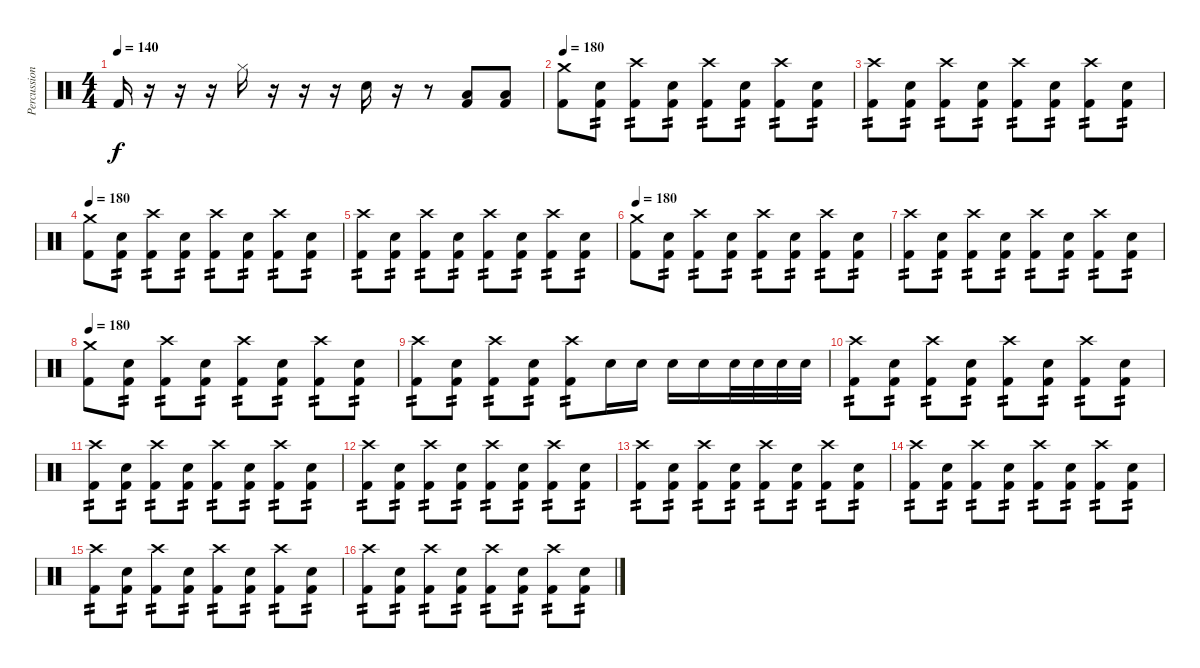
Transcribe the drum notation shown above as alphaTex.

\track ("Percussion" "Percussion") {instrument percussion}
\staff {score}
\articulation defaults
\ts (4 4)
\tempo 140
\clef neutral
\ks c "Kick (hit) 2".16{dy f}
r.16 r.16 r.16 "Hi-Hat (closed)".16 r.16 r.16 r.16 "Electric Snare (hit)".16 r.16 r.8 ("Kick (hit) 2" "Low Floor Tom (hit)").8 ("Kick (hit) 2" "Low Floor Tom (hit)").8 |
\tempo 180
("Crash medium (hit)" "Kick (hit) 2").8 ("Electric Snare (hit)" "Kick (hit) 2").8{tp 2} ("Crash high (hit)" "Kick (hit) 2").8{tp 2} ("Electric Snare (hit)" "Kick (hit) 2").8{tp 2} ("Crash high (hit)" "Kick (hit) 2").8{tp 2} ("Electric Snare (hit)" "Kick (hit) 2").8{tp 2} ("Crash high (hit)" "Kick (hit) 2").8{tp 2} ("Electric Snare (hit)" "Kick (hit) 2").8{tp 2} |
("Crash high (hit)" "Kick (hit) 2").8{tp 2} ("Electric Snare (hit)" "Kick (hit) 2").8{tp 2} ("Crash high (hit)" "Kick (hit) 2").8{tp 2} ("Electric Snare (hit)" "Kick (hit) 2").8{tp 2} ("Crash high (hit)" "Kick (hit) 2").8{tp 2} ("Electric Snare (hit)" "Kick (hit) 2").8{tp 2} ("Crash high (hit)" "Kick (hit) 2").8{tp 2} ("Electric Snare (hit)" "Kick (hit) 2").8{tp 2} |
\tempo 180
("Crash medium (hit)" "Kick (hit) 2").8 ("Electric Snare (hit)" "Kick (hit) 2").8{tp 2} ("Crash high (hit)" "Kick (hit) 2").8{tp 2} ("Electric Snare (hit)" "Kick (hit) 2").8{tp 2} ("Crash high (hit)" "Kick (hit) 2").8{tp 2} ("Electric Snare (hit)" "Kick (hit) 2").8{tp 2} ("Crash high (hit)" "Kick (hit) 2").8{tp 2} ("Electric Snare (hit)" "Kick (hit) 2").8{tp 2} |
("Crash high (hit)" "Kick (hit) 2").8{tp 2} ("Electric Snare (hit)" "Kick (hit) 2").8{tp 2} ("Crash high (hit)" "Kick (hit) 2").8{tp 2} ("Electric Snare (hit)" "Kick (hit) 2").8{tp 2} ("Crash high (hit)" "Kick (hit) 2").8{tp 2} ("Electric Snare (hit)" "Kick (hit) 2").8{tp 2} ("Crash high (hit)" "Kick (hit) 2").8{tp 2} ("Electric Snare (hit)" "Kick (hit) 2").8{tp 2} |
\tempo 180
("Crash medium (hit)" "Kick (hit) 2").8 ("Electric Snare (hit)" "Kick (hit) 2").8{tp 2} ("Crash high (hit)" "Kick (hit) 2").8{tp 2} ("Electric Snare (hit)" "Kick (hit) 2").8{tp 2} ("Crash high (hit)" "Kick (hit) 2").8{tp 2} ("Electric Snare (hit)" "Kick (hit) 2").8{tp 2} ("Crash high (hit)" "Kick (hit) 2").8{tp 2} ("Electric Snare (hit)" "Kick (hit) 2").8{tp 2} |
("Crash high (hit)" "Kick (hit) 2").8{tp 2} ("Electric Snare (hit)" "Kick (hit) 2").8{tp 2} ("Crash high (hit)" "Kick (hit) 2").8{tp 2} ("Electric Snare (hit)" "Kick (hit) 2").8{tp 2} ("Crash high (hit)" "Kick (hit) 2").8{tp 2} ("Electric Snare (hit)" "Kick (hit) 2").8{tp 2} ("Crash high (hit)" "Kick (hit) 2").8{tp 2} ("Electric Snare (hit)" "Kick (hit) 2").8{tp 2} |
\tempo 180
("Crash medium (hit)" "Kick (hit) 2").8 ("Electric Snare (hit)" "Kick (hit) 2").8{tp 2} ("Crash high (hit)" "Kick (hit) 2").8{tp 2} ("Electric Snare (hit)" "Kick (hit) 2").8{tp 2} ("Crash high (hit)" "Kick (hit) 2").8{tp 2} ("Electric Snare (hit)" "Kick (hit) 2").8{tp 2} ("Crash high (hit)" "Kick (hit) 2").8{tp 2} ("Electric Snare (hit)" "Kick (hit) 2").8{tp 2} |
("Crash high (hit)" "Kick (hit) 2").8{tp 2} ("Electric Snare (hit)" "Kick (hit) 2").8{tp 2} ("Crash high (hit)" "Kick (hit) 2").8{tp 2} ("Electric Snare (hit)" "Kick (hit) 2").8{tp 2} ("Crash high (hit)" "Kick (hit) 2").8{tp 2} "Electric Snare (hit)".16 "Electric Snare (hit)".16 "Electric Snare (hit)".16 "Electric Snare (hit)".16 "Electric Snare (hit)".32 "Electric Snare (hit)".32 "Electric Snare (hit)".32 "Electric Snare (hit)".32 |
("Crash high (hit)" "Kick (hit) 2").8{tp 2} ("Electric Snare (hit)" "Kick (hit) 2").8{tp 2} ("Crash high (hit)" "Kick (hit) 2").8{tp 2} ("Electric Snare (hit)" "Kick (hit) 2").8{tp 2} ("Crash high (hit)" "Kick (hit) 2").8{tp 2} ("Electric Snare (hit)" "Kick (hit) 2").8{tp 2} ("Crash high (hit)" "Kick (hit) 2").8{tp 2} ("Electric Snare (hit)" "Kick (hit) 2").8{tp 2} |
("Crash high (hit)" "Kick (hit) 2").8{tp 2} ("Electric Snare (hit)" "Kick (hit) 2").8{tp 2} ("Crash high (hit)" "Kick (hit) 2").8{tp 2} ("Electric Snare (hit)" "Kick (hit) 2").8{tp 2} ("Crash high (hit)" "Kick (hit) 2").8{tp 2} ("Electric Snare (hit)" "Kick (hit) 2").8{tp 2} ("Crash high (hit)" "Kick (hit) 2").8{tp 2} ("Electric Snare (hit)" "Kick (hit) 2").8{tp 2} |
("Crash high (hit)" "Kick (hit) 2").8{tp 2} ("Electric Snare (hit)" "Kick (hit) 2").8{tp 2} ("Crash high (hit)" "Kick (hit) 2").8{tp 2} ("Electric Snare (hit)" "Kick (hit) 2").8{tp 2} ("Crash high (hit)" "Kick (hit) 2").8{tp 2} ("Electric Snare (hit)" "Kick (hit) 2").8{tp 2} ("Crash high (hit)" "Kick (hit) 2").8{tp 2} ("Electric Snare (hit)" "Kick (hit) 2").8{tp 2} |
("Crash high (hit)" "Kick (hit) 2").8{tp 2} ("Electric Snare (hit)" "Kick (hit) 2").8{tp 2} ("Crash high (hit)" "Kick (hit) 2").8{tp 2} ("Electric Snare (hit)" "Kick (hit) 2").8{tp 2} ("Crash high (hit)" "Kick (hit) 2").8{tp 2} ("Electric Snare (hit)" "Kick (hit) 2").8{tp 2} ("Crash high (hit)" "Kick (hit) 2").8{tp 2} ("Electric Snare (hit)" "Kick (hit) 2").8{tp 2} |
("Crash high (hit)" "Kick (hit) 2").8{tp 2} ("Electric Snare (hit)" "Kick (hit) 2").8{tp 2} ("Crash high (hit)" "Kick (hit) 2").8{tp 2} ("Electric Snare (hit)" "Kick (hit) 2").8{tp 2} ("Crash high (hit)" "Kick (hit) 2").8{tp 2} ("Electric Snare (hit)" "Kick (hit) 2").8{tp 2} ("Crash high (hit)" "Kick (hit) 2").8{tp 2} ("Electric Snare (hit)" "Kick (hit) 2").8{tp 2} |
("Crash high (hit)" "Kick (hit) 2").8{tp 2} ("Electric Snare (hit)" "Kick (hit) 2").8{tp 2} ("Crash high (hit)" "Kick (hit) 2").8{tp 2} ("Electric Snare (hit)" "Kick (hit) 2").8{tp 2} ("Crash high (hit)" "Kick (hit) 2").8{tp 2} ("Electric Snare (hit)" "Kick (hit) 2").8{tp 2} ("Crash high (hit)" "Kick (hit) 2").8{tp 2} ("Electric Snare (hit)" "Kick (hit) 2").8{tp 2} |
("Crash high (hit)" "Kick (hit) 2").8{tp 2} ("Electric Snare (hit)" "Kick (hit) 2").8{tp 2} ("Crash high (hit)" "Kick (hit) 2").8{tp 2} ("Electric Snare (hit)" "Kick (hit) 2").8{tp 2} ("Crash high (hit)" "Kick (hit) 2").8{tp 2} ("Electric Snare (hit)" "Kick (hit) 2").8{tp 2} ("Crash high (hit)" "Kick (hit) 2").8{tp 2} ("Electric Snare (hit)" "Kick (hit) 2").8{tp 2}
